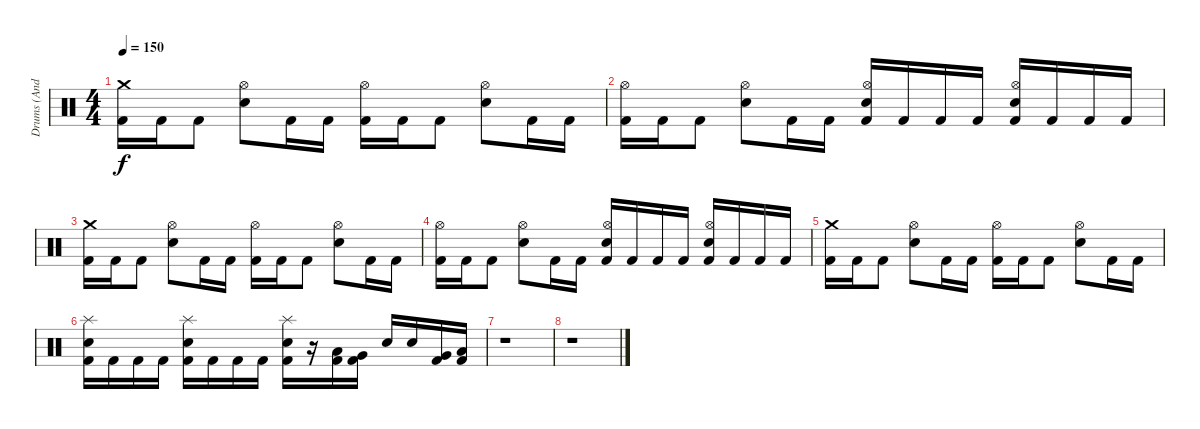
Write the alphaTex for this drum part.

\track ("Drums (Andy C)" "Drums (And") {instrument percussion}
\staff
\articulation defaults
\ts (4 4)
\tempo 150
\clef neutral
\ks c
("Crash medium (hit)" "Kick (hit) 2").16{dy f} "Kick (hit) 2".16 "Kick (hit) 2".8 ("Hi-Hat (open)" "Electric Snare (hit)").8 "Kick (hit) 2".16 "Kick (hit) 2".16 ("Hi-Hat (open)" "Kick (hit) 2").16 "Kick (hit) 2".16 "Kick (hit) 2".8 ("Hi-Hat (open)" "Electric Snare (hit)").8 "Kick (hit) 2".16 "Kick (hit) 2".16 |
("Hi-Hat (open)" "Kick (hit) 2").16 "Kick (hit) 2".16 "Kick (hit) 2".8 ("Hi-Hat (open)" "Electric Snare (hit)").8 "Kick (hit) 2".16 "Kick (hit) 2".16 ("Hi-Hat (open)" "Kick (hit) 2" "Electric Snare (hit)").16 "Kick (hit) 2".16 "Kick (hit) 2".16 "Kick (hit) 2".16 ("Hi-Hat (open)" "Kick (hit) 2" "Electric Snare (hit)").16 "Kick (hit) 2".16 "Kick (hit) 2".16 "Kick (hit) 2".16 |
("Crash medium (hit)" "Kick (hit) 2").16 "Kick (hit) 2".16 "Kick (hit) 2".8 ("Hi-Hat (open)" "Electric Snare (hit)").8 "Kick (hit) 2".16 "Kick (hit) 2".16 ("Hi-Hat (open)" "Kick (hit) 2").16 "Kick (hit) 2".16 "Kick (hit) 2".8 ("Hi-Hat (open)" "Electric Snare (hit)").8 "Kick (hit) 2".16 "Kick (hit) 2".16 |
("Hi-Hat (open)" "Kick (hit) 2").16 "Kick (hit) 2".16 "Kick (hit) 2".8 ("Hi-Hat (open)" "Electric Snare (hit)").8 "Kick (hit) 2".16 "Kick (hit) 2".16 ("Hi-Hat (open)" "Kick (hit) 2" "Electric Snare (hit)").16 "Kick (hit) 2".16 "Kick (hit) 2".16 "Kick (hit) 2".16 ("Hi-Hat (open)" "Kick (hit) 2" "Electric Snare (hit)").16 "Kick (hit) 2".16 "Kick (hit) 2".16 "Kick (hit) 2".16 |
("Crash medium (hit)" "Kick (hit) 2").16 "Kick (hit) 2".16 "Kick (hit) 2".8 ("Hi-Hat (open)" "Electric Snare (hit)").8 "Kick (hit) 2".16 "Kick (hit) 2".16 ("Hi-Hat (open)" "Kick (hit) 2").16 "Kick (hit) 2".16 "Kick (hit) 2".8 ("Hi-Hat (open)" "Electric Snare (hit)").8 "Kick (hit) 2".16 "Kick (hit) 2".16 |
("Splash (hit)" "Kick (hit) 2" "Electric Snare (hit)").16 "Kick (hit) 2".16 "Kick (hit) 2".16 "Kick (hit) 2".16 ("Splash (hit)" "Kick (hit) 2" "Electric Snare (hit)").16 "Kick (hit) 2".16 "Kick (hit) 2".16 "Kick (hit) 2".16 ("Splash (hit)" "Kick (hit) 2" "Electric Snare (hit)").16 r.16 ("Low Tom (hit)" "Kick (hit) 2").16 ("Very Low Tom (hit)" "Kick (hit) 2").16 "Electric Snare (hit)".16 "Electric Snare (hit)".16 ("Very Low Tom (hit)" "Kick (hit) 2").16 ("Low Floor Tom (hit)" "Kick (hit) 2").16 |
r.1 |
r.1
